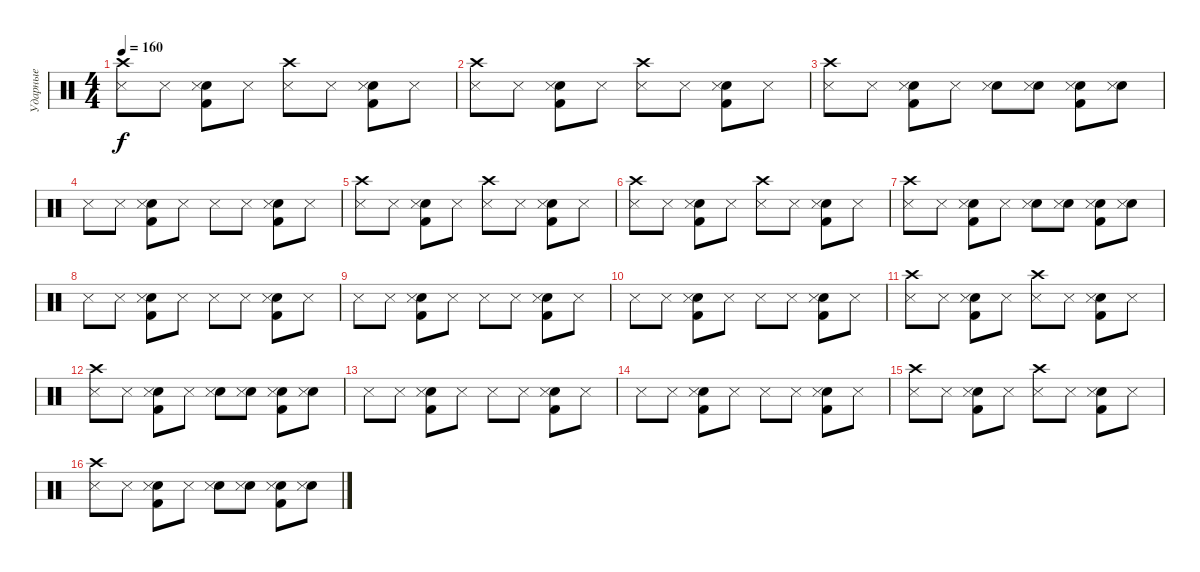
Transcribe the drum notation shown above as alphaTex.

\track ("Ударные" "Ударные") {instrument percussion}
\staff {score}
\articulation defaults
\ts (4 4)
\tempo 160
\clef neutral
\ks c
("Crash high (hit)" "Snare (side stick) 3").8{dy f} "Snare (side stick) 3".8 ("Kick (hit) 2" "Snare (hit) 2" "Snare (side stick) 3").8 "Snare (side stick) 3".8 ("Crash high (hit)" "Snare (side stick) 3").8 "Snare (side stick) 3".8 ("Kick (hit) 2" "Snare (hit) 2" "Snare (side stick) 3").8 "Snare (side stick) 3".8 |
("Crash high (hit)" "Snare (side stick) 3").8 "Snare (side stick) 3".8 ("Kick (hit) 2" "Snare (hit) 2" "Snare (side stick) 3").8 "Snare (side stick) 3".8 ("Crash high (hit)" "Snare (side stick) 3").8 "Snare (side stick) 3".8 ("Kick (hit) 2" "Snare (hit) 2" "Snare (side stick) 3").8 "Snare (side stick) 3".8 |
("Crash high (hit)" "Snare (side stick) 3").8 "Snare (side stick) 3".8 ("Kick (hit) 2" "Snare (hit) 2" "Snare (side stick) 3").8 "Snare (side stick) 3".8 ("Snare (hit) 2" "Snare (side stick) 3").8 ("Snare (hit) 2" "Snare (side stick) 3").8 ("Kick (hit) 2" "Snare (hit) 2" "Snare (side stick) 3").8 ("Snare (hit) 2" "Snare (side stick) 3").8 |
"Snare (side stick) 3".8 "Snare (side stick) 3".8 ("Kick (hit) 2" "Snare (hit) 2" "Snare (side stick) 3").8 "Snare (side stick) 3".8 "Snare (side stick) 3".8 "Snare (side stick) 3".8 ("Kick (hit) 2" "Snare (hit) 2" "Snare (side stick) 3").8 "Snare (side stick) 3".8 |
("Crash high (hit)" "Snare (side stick) 3").8 "Snare (side stick) 3".8 ("Kick (hit) 2" "Snare (hit) 2" "Snare (side stick) 3").8 "Snare (side stick) 3".8 ("Crash high (hit)" "Snare (side stick) 3").8 "Snare (side stick) 3".8 ("Kick (hit) 2" "Snare (hit) 2" "Snare (side stick) 3").8 "Snare (side stick) 3".8 |
("Crash high (hit)" "Snare (side stick) 3").8 "Snare (side stick) 3".8 ("Kick (hit) 2" "Snare (hit) 2" "Snare (side stick) 3").8 "Snare (side stick) 3".8 ("Crash high (hit)" "Snare (side stick) 3").8 "Snare (side stick) 3".8 ("Kick (hit) 2" "Snare (hit) 2" "Snare (side stick) 3").8 "Snare (side stick) 3".8 |
("Crash high (hit)" "Snare (side stick) 3").8 "Snare (side stick) 3".8 ("Kick (hit) 2" "Snare (hit) 2" "Snare (side stick) 3").8 "Snare (side stick) 3".8 ("Snare (hit) 2" "Snare (side stick) 3").8 ("Snare (hit) 2" "Snare (side stick) 3").8 ("Kick (hit) 2" "Snare (hit) 2" "Snare (side stick) 3").8 ("Snare (hit) 2" "Snare (side stick) 3").8 |
"Snare (side stick) 3".8 "Snare (side stick) 3".8 ("Kick (hit) 2" "Snare (hit) 2" "Snare (side stick) 3").8 "Snare (side stick) 3".8 "Snare (side stick) 3".8 "Snare (side stick) 3".8 ("Kick (hit) 2" "Snare (hit) 2" "Snare (side stick) 3").8 "Snare (side stick) 3".8 |
"Snare (side stick) 3".8 "Snare (side stick) 3".8 ("Kick (hit) 2" "Snare (hit) 2" "Snare (side stick) 3").8 "Snare (side stick) 3".8 "Snare (side stick) 3".8 "Snare (side stick) 3".8 ("Kick (hit) 2" "Snare (hit) 2" "Snare (side stick) 3").8 "Snare (side stick) 3".8 |
"Snare (side stick) 3".8 "Snare (side stick) 3".8 ("Kick (hit) 2" "Snare (hit) 2" "Snare (side stick) 3").8 "Snare (side stick) 3".8 "Snare (side stick) 3".8 "Snare (side stick) 3".8 ("Kick (hit) 2" "Snare (hit) 2" "Snare (side stick) 3").8 "Snare (side stick) 3".8 |
("Crash high (hit)" "Snare (side stick) 3").8 "Snare (side stick) 3".8 ("Kick (hit) 2" "Snare (hit) 2" "Snare (side stick) 3").8 "Snare (side stick) 3".8 ("Crash high (hit)" "Snare (side stick) 3").8 "Snare (side stick) 3".8 ("Kick (hit) 2" "Snare (hit) 2" "Snare (side stick) 3").8 "Snare (side stick) 3".8 |
("Crash high (hit)" "Snare (side stick) 3").8 "Snare (side stick) 3".8 ("Kick (hit) 2" "Snare (hit) 2" "Snare (side stick) 3").8 "Snare (side stick) 3".8 ("Snare (hit) 2" "Snare (side stick) 3").8 ("Snare (hit) 2" "Snare (side stick) 3").8 ("Kick (hit) 2" "Snare (hit) 2" "Snare (side stick) 3").8 ("Snare (hit) 2" "Snare (side stick) 3").8 |
"Snare (side stick) 3".8 "Snare (side stick) 3".8 ("Kick (hit) 2" "Snare (hit) 2" "Snare (side stick) 3").8 "Snare (side stick) 3".8 "Snare (side stick) 3".8 "Snare (side stick) 3".8 ("Kick (hit) 2" "Snare (hit) 2" "Snare (side stick) 3").8 "Snare (side stick) 3".8 |
"Snare (side stick) 3".8 "Snare (side stick) 3".8 ("Kick (hit) 2" "Snare (hit) 2" "Snare (side stick) 3").8 "Snare (side stick) 3".8 "Snare (side stick) 3".8 "Snare (side stick) 3".8 ("Kick (hit) 2" "Snare (hit) 2" "Snare (side stick) 3").8 "Snare (side stick) 3".8 |
("Crash high (hit)" "Snare (side stick) 3").8 "Snare (side stick) 3".8 ("Kick (hit) 2" "Snare (hit) 2" "Snare (side stick) 3").8 "Snare (side stick) 3".8 ("Crash high (hit)" "Snare (side stick) 3").8 "Snare (side stick) 3".8 ("Kick (hit) 2" "Snare (hit) 2" "Snare (side stick) 3").8 "Snare (side stick) 3".8 |
("Crash high (hit)" "Snare (side stick) 3").8 "Snare (side stick) 3".8 ("Kick (hit) 2" "Snare (hit) 2" "Snare (side stick) 3").8 "Snare (side stick) 3".8 ("Snare (hit) 2" "Snare (side stick) 3").8 ("Snare (hit) 2" "Snare (side stick) 3").8 ("Kick (hit) 2" "Snare (hit) 2" "Snare (side stick) 3").8 ("Snare (hit) 2" "Snare (side stick) 3").8
